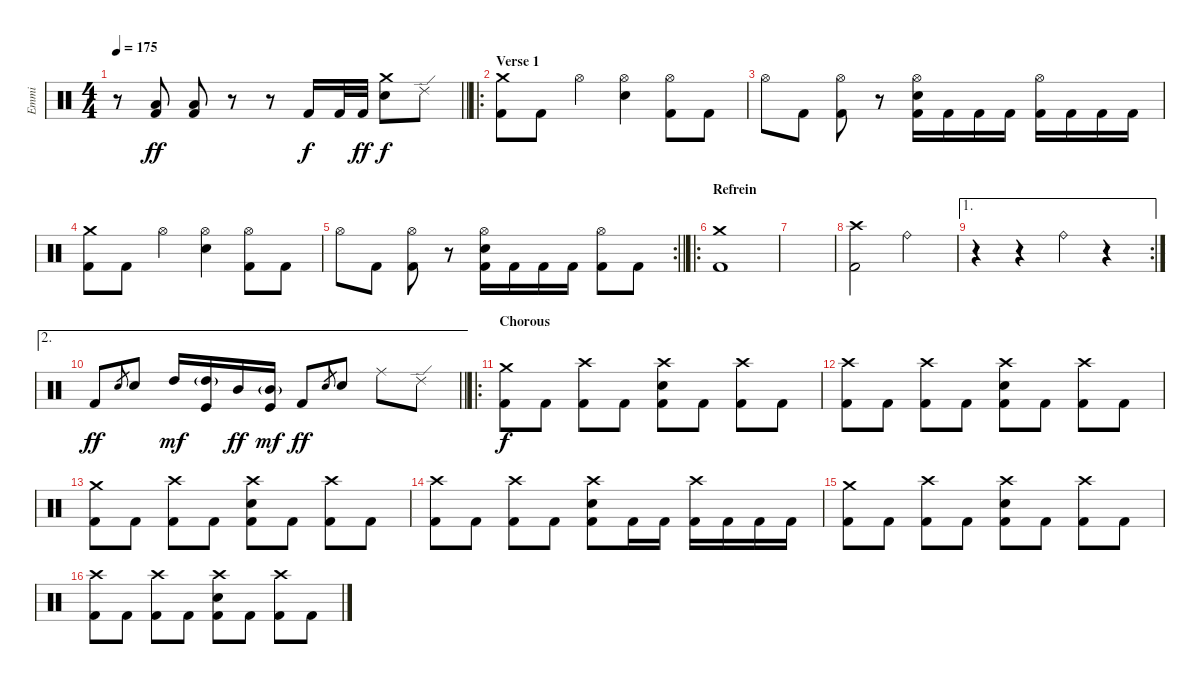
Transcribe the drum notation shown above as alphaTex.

\track ("Emmi" "Emmi") {instrument percussion}
\staff {score}
\articulation defaults
\ts (4 4)
\tempo 175
\clef neutral
\barLineRight lightlight
\ks c
r.8{dy ff} ("Low Floor Tom (hit)" "Kick (hit) 2").8 ("Low Floor Tom (hit)" "Kick (hit) 2").8 r.8 r.8 "Kick (hit) 2".16{dy f} "Kick (hit) 2".32 "Kick (hit) 2".32{dy ff} ("Crash medium (hit)" "Electric Snare (hit)").8{dy f} "Ride (edge) 2".8 |
\ro
\section ("" "Verse 1")
("Crash medium (hit)" "Kick (hit) 2").8 "Kick (hit) 2".8 "Hi-Hat (open)".4 ("Hi-Hat (open)" "Electric Snare (hit)").4 ("Hi-Hat (open)" "Kick (hit) 2").8 "Kick (hit) 2".8 |
"Hi-Hat (open)".8 "Kick (hit) 2".8 ("Hi-Hat (open)" "Kick (hit) 2").8 r.8 ("Hi-Hat (open)" "Electric Snare (hit)" "Kick (hit) 2").16 "Kick (hit) 2".16 "Kick (hit) 2".16 "Kick (hit) 2".16 ("Hi-Hat (open)" "Kick (hit) 2").16 "Kick (hit) 2".16 "Kick (hit) 2".16 "Kick (hit) 2".16 |
("Crash medium (hit)" "Kick (hit) 2").8 "Kick (hit) 2".8 "Hi-Hat (open)".4 ("Hi-Hat (open)" "Electric Snare (hit)").4 ("Hi-Hat (open)" "Kick (hit) 2").8 "Kick (hit) 2".8 |
\rc 2
\barLineRight lightlight "Hi-Hat (open)".8 "Kick (hit) 2".8
("Hi-Hat (open)" "Kick (hit) 2").8 r.8 ("Hi-Hat (open)" "Electric Snare (hit)" "Kick (hit) 2").16 "Kick (hit) 2".16 "Kick (hit) 2".16 "Kick (hit) 2".16 ("Hi-Hat (open)" "Kick (hit) 2").8 "Kick (hit) 2".8 |
\ro
\section ("" "Refrein")
("Crash medium (hit)" "Kick (hit) 2").1 |
|
("Crash high (hit)" "Kick (hit) 2").2 "Ride (bell)".2 |
\ae 1
\rc 2
r.4 r.4 "Ride (bell)".4 r.4 |
\ae 2
\barLineRight lightlight "Kick (hit) 2".8{dy ff} "Electric Snare (hit)".8{gr} "Electric Snare (hit)".8 "High Tom (hit)".16{dy mf}
("High Tom (hit)"{g} "Kick (hit)").16 "Mid Tom (hit)".16{dy ff} ("Mid Tom (hit)"{g} "Kick (hit)").16{dy mf} "Kick (hit) 2".8{dy ff} "Electric Snare (hit)".8{gr} "Electric Snare (hit)".8 "Ride (middle)".8 "Ride (edge) 2".8 |
\ro
\section ("" "Chorous")
("Crash medium (hit)" "Kick (hit) 2").8{dy f} "Kick (hit) 2".8 ("Crash high (hit)" "Kick (hit) 2").8 "Kick (hit) 2".8 ("Crash high (hit)" "Electric Snare (hit)" "Kick (hit) 2").8 "Kick (hit) 2".8 ("Crash high (hit)" "Kick (hit) 2").8 "Kick (hit) 2".8 |
("Crash high (hit)" "Kick (hit) 2").8 "Kick (hit) 2".8 ("Crash high (hit)" "Kick (hit) 2").8 "Kick (hit) 2".8 ("Crash high (hit)" "Electric Snare (hit)" "Kick (hit) 2").8 "Kick (hit) 2".8 ("Crash high (hit)" "Kick (hit) 2").8 "Kick (hit) 2".8 |
("Crash medium (hit)" "Kick (hit) 2").8 "Kick (hit) 2".8 ("Crash high (hit)" "Kick (hit) 2").8 "Kick (hit) 2".8 ("Crash high (hit)" "Electric Snare (hit)" "Kick (hit) 2").8 "Kick (hit) 2".8 ("Crash high (hit)" "Kick (hit) 2").8 "Kick (hit) 2".8 |
("Crash high (hit)" "Kick (hit) 2").8 "Kick (hit) 2".8 ("Crash high (hit)" "Kick (hit) 2").8 "Kick (hit) 2".8 ("Crash high (hit)" "Electric Snare (hit)" "Kick (hit) 2").8 "Kick (hit) 2".16 "Kick (hit) 2".16 ("Crash high (hit)" "Kick (hit) 2").16 "Kick (hit) 2".16 "Kick (hit) 2".16 "Kick (hit) 2".16 |
("Crash medium (hit)" "Kick (hit) 2").8 "Kick (hit) 2".8 ("Crash high (hit)" "Kick (hit) 2").8 "Kick (hit) 2".8 ("Crash high (hit)" "Electric Snare (hit)" "Kick (hit) 2").8 "Kick (hit) 2".8 ("Crash high (hit)" "Kick (hit) 2").8 "Kick (hit) 2".8 |
("Crash high (hit)" "Kick (hit) 2").8 "Kick (hit) 2".8 ("Crash high (hit)" "Kick (hit) 2").8 "Kick (hit) 2".8 ("Crash high (hit)" "Electric Snare (hit)" "Kick (hit) 2").8 "Kick (hit) 2".8 ("Crash high (hit)" "Kick (hit) 2").8 "Kick (hit) 2".8
